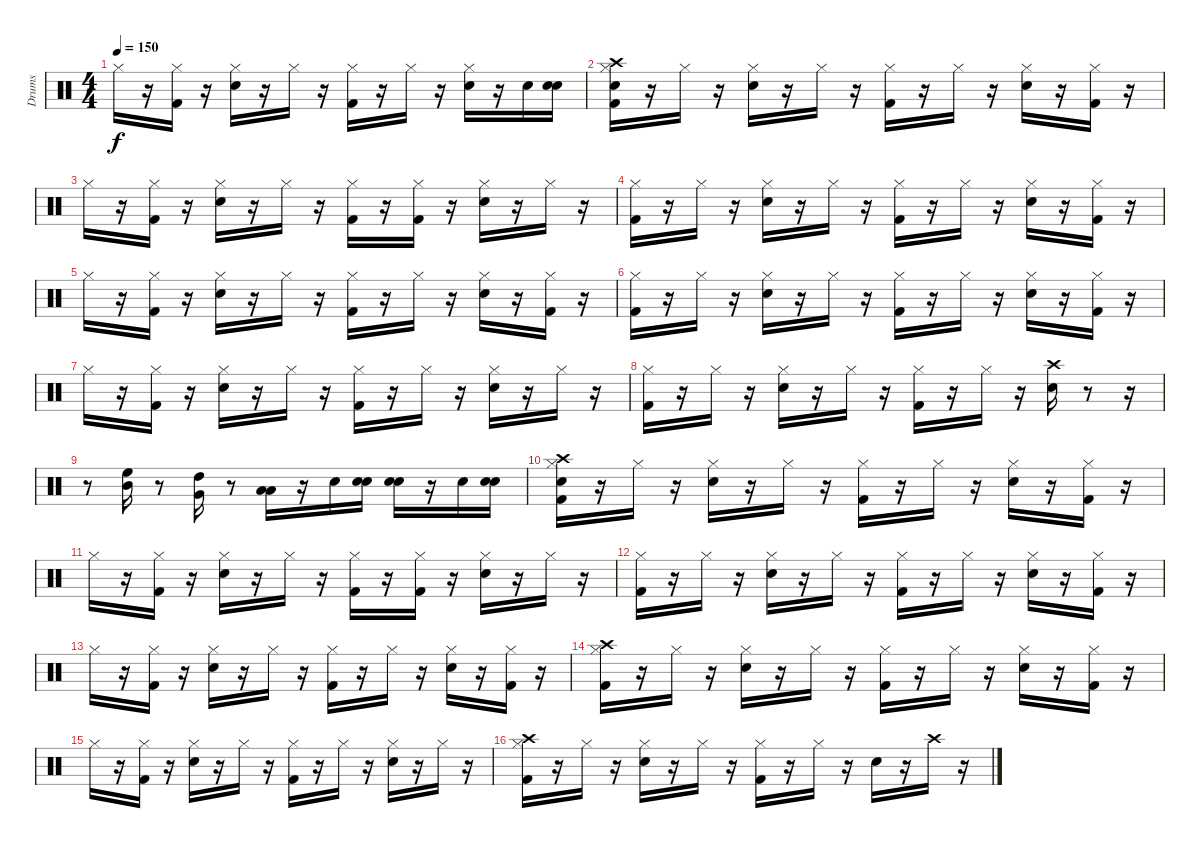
\track ("Drums" "Drums") {instrument percussion}
\staff {score}
\articulation defaults
\ts (4 4)
\tempo 150
\clef neutral
\ks c "Hi-Hat (closed)".16{dy f}
r.16 ("Kick (hit) 2" "Hi-Hat (closed)").16 r.16 ("Snare (hit) 2" "Hi-Hat (closed)").16 r.16 "Hi-Hat (closed)".16 r.16 ("Kick (hit) 2" "Hi-Hat (closed)").16 r.16 "Hi-Hat (closed)".16 r.16 ("Snare (hit) 2" "Hi-Hat (closed)").16 r.16 "Snare (hit) 2".16 ("Snare (hit)" "Snare (hit) 2").16 |
("Snare (hit)" "Crash high (hit)" "Kick (hit) 2" "Hi-Hat (closed)").16 r.16 "Hi-Hat (closed)".16 r.16 ("Snare (hit) 2" "Hi-Hat (closed)").16 r.16 "Hi-Hat (closed)".16 r.16 ("Kick (hit) 2" "Hi-Hat (closed)").16 r.16 "Hi-Hat (closed)".16 r.16 ("Snare (hit) 2" "Hi-Hat (closed)").16 r.16 ("Kick (hit) 2" "Hi-Hat (closed)").16 r.16 |
"Hi-Hat (closed)".16 r.16 ("Kick (hit) 2" "Hi-Hat (closed)").16 r.16 ("Snare (hit) 2" "Hi-Hat (closed)").16 r.16 "Hi-Hat (closed)".16 r.16 ("Kick (hit) 2" "Hi-Hat (closed)").16 r.16 ("Kick (hit) 2" "Hi-Hat (closed)").16 r.16 ("Snare (hit) 2" "Hi-Hat (closed)").16 r.16 "Hi-Hat (closed)".16 r.16 |
("Kick (hit) 2" "Hi-Hat (closed)").16 r.16 "Hi-Hat (closed)".16 r.16 ("Snare (hit) 2" "Hi-Hat (closed)").16 r.16 "Hi-Hat (closed)".16 r.16 ("Kick (hit) 2" "Hi-Hat (closed)").16 r.16 "Hi-Hat (closed)".16 r.16 ("Snare (hit) 2" "Hi-Hat (closed)").16 r.16 ("Kick (hit) 2" "Hi-Hat (closed)").16 r.16 |
"Hi-Hat (closed)".16 r.16 ("Kick (hit) 2" "Hi-Hat (closed)").16 r.16 ("Snare (hit) 2" "Hi-Hat (closed)").16 r.16 "Hi-Hat (closed)".16 r.16 ("Kick (hit) 2" "Hi-Hat (closed)").16 r.16 "Hi-Hat (closed)".16 r.16 ("Snare (hit) 2" "Hi-Hat (closed)").16 r.16 ("Kick (hit) 2" "Hi-Hat (closed)").16 r.16 |
("Kick (hit) 2" "Hi-Hat (closed)").16 r.16 "Hi-Hat (closed)".16 r.16 ("Snare (hit) 2" "Hi-Hat (closed)").16 r.16 "Hi-Hat (closed)".16 r.16 ("Kick (hit) 2" "Hi-Hat (closed)").16 r.16 "Hi-Hat (closed)".16 r.16 ("Snare (hit) 2" "Hi-Hat (closed)").16 r.16 ("Kick (hit) 2" "Hi-Hat (closed)").16 r.16 |
"Hi-Hat (closed)".16 r.16 ("Kick (hit) 2" "Hi-Hat (closed)").16 r.16 ("Snare (hit) 2" "Hi-Hat (closed)").16 r.16 "Hi-Hat (closed)".16 r.16 ("Kick (hit) 2" "Hi-Hat (closed)").16 r.16 "Hi-Hat (closed)".16 r.16 ("Snare (hit) 2" "Hi-Hat (closed)").16 r.16 "Hi-Hat (closed)".16 r.16 |
("Kick (hit) 2" "Hi-Hat (closed)").16 r.16 "Hi-Hat (closed)".16 r.16 ("Snare (hit) 2" "Hi-Hat (closed)").16 r.16 "Hi-Hat (closed)".16 r.16 ("Kick (hit) 2" "Hi-Hat (closed)").16 r.16 "Hi-Hat (closed)".16 r.16 ("Snare (hit) 2" "Crash high (hit)").16 r.8 r.16 |
r.8 ("Mid Tom (hit)" "High Floor Tom (hit)").16 r.8 ("High Tom (hit)" "Very Low Tom (hit)").16 r.8 ("Low Tom (hit)" "Low Floor Tom (hit)").16 r.16 "Snare (hit) 2".16 ("Snare (hit)" "Snare (hit) 2").16 ("Snare (hit)" "Snare (hit) 2").16 r.16 "Snare (hit) 2".16 ("Snare (hit)" "Snare (hit) 2").16 |
("Snare (hit)" "Crash high (hit)" "Kick (hit) 2" "Hi-Hat (closed)").16 r.16 "Hi-Hat (closed)".16 r.16 ("Snare (hit) 2" "Hi-Hat (closed)").16 r.16 "Hi-Hat (closed)".16 r.16 ("Kick (hit) 2" "Hi-Hat (closed)").16 r.16 "Hi-Hat (closed)".16 r.16 ("Snare (hit) 2" "Hi-Hat (closed)").16 r.16 ("Kick (hit) 2" "Hi-Hat (closed)").16 r.16 |
"Hi-Hat (closed)".16 r.16 ("Kick (hit) 2" "Hi-Hat (closed)").16 r.16 ("Snare (hit) 2" "Hi-Hat (closed)").16 r.16 "Hi-Hat (closed)".16 r.16 ("Kick (hit) 2" "Hi-Hat (closed)").16 r.16 ("Kick (hit) 2" "Hi-Hat (closed)").16 r.16 ("Snare (hit) 2" "Hi-Hat (closed)").16 r.16 "Hi-Hat (closed)".16 r.16 |
("Kick (hit) 2" "Hi-Hat (closed)").16 r.16 "Hi-Hat (closed)".16 r.16 ("Snare (hit) 2" "Hi-Hat (closed)").16 r.16 "Hi-Hat (closed)".16 r.16 ("Kick (hit) 2" "Hi-Hat (closed)").16 r.16 "Hi-Hat (closed)".16 r.16 ("Snare (hit) 2" "Hi-Hat (closed)").16 r.16 ("Kick (hit) 2" "Hi-Hat (closed)").16 r.16 |
"Hi-Hat (closed)".16 r.16 ("Kick (hit) 2" "Hi-Hat (closed)").16 r.16 ("Snare (hit) 2" "Hi-Hat (closed)").16 r.16 "Hi-Hat (closed)".16 r.16 ("Kick (hit) 2" "Hi-Hat (closed)").16 r.16 "Hi-Hat (closed)".16 r.16 ("Snare (hit) 2" "Hi-Hat (closed)").16 r.16 ("Kick (hit) 2" "Hi-Hat (closed)").16 r.16 |
("Crash high (hit)" "Kick (hit) 2" "Hi-Hat (closed)").16 r.16 "Hi-Hat (closed)".16 r.16 ("Snare (hit) 2" "Hi-Hat (closed)").16 r.16 "Hi-Hat (closed)".16 r.16 ("Kick (hit) 2" "Hi-Hat (closed)").16 r.16 "Hi-Hat (closed)".16 r.16 ("Snare (hit) 2" "Hi-Hat (closed)").16 r.16 ("Kick (hit) 2" "Hi-Hat (closed)").16 r.16 |
"Hi-Hat (closed)".16 r.16 ("Kick (hit) 2" "Hi-Hat (closed)").16 r.16 ("Snare (hit) 2" "Hi-Hat (closed)").16 r.16 "Hi-Hat (closed)".16 r.16 ("Kick (hit) 2" "Hi-Hat (closed)").16 r.16 "Hi-Hat (closed)".16 r.16 ("Snare (hit) 2" "Hi-Hat (closed)").16 r.16 "Hi-Hat (closed)".16 r.16 |
("Crash high (hit)" "Kick (hit) 2" "Hi-Hat (closed)").16 r.16 "Hi-Hat (closed)".16 r.16 ("Snare (hit) 2" "Hi-Hat (closed)").16 r.16 "Hi-Hat (closed)".16 r.16 ("Kick (hit) 2" "Hi-Hat (closed)").16 r.16 "Hi-Hat (closed)".16 r.16 "Snare (hit) 2".16 r.16 "Crash high (hit)".16 r.16
